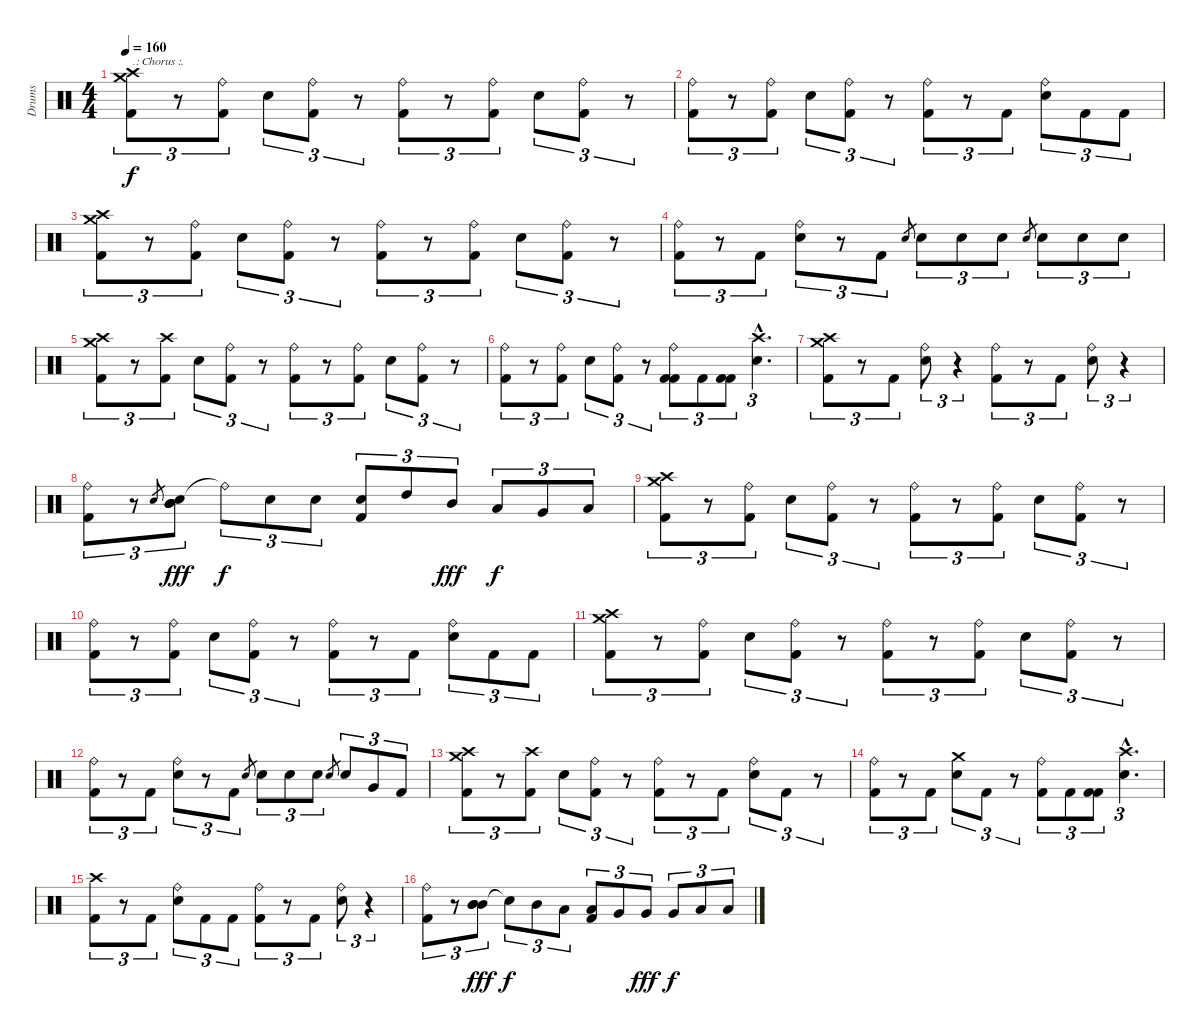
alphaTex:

\track ("Drums" "Drums") {instrument percussion}
\staff {score}
\articulation defaults
\ts (4 4)
\tempo 160
\clef neutral
\ks c
("Crash medium (hit)" "Crash high (hit)" "Kick (hit) 2").8{tu (3 2) txt ".: Chorus :." dy f} r.8{tu (3 2)} ("Kick (hit) 2" "Ride (bell)").8{tu (3 2)} "Electric Snare (hit)".8{tu (3 2)} ("Ride (bell)" "Kick (hit) 2").8{tu (3 2)} r.8{tu (3 2)} ("Kick (hit) 2" "Ride (bell)").8{tu (3 2)} r.8{tu (3 2)} ("Ride (bell)" "Kick (hit) 2").8{tu (3 2)} "Electric Snare (hit)".8{tu (3 2)} ("Ride (bell)" "Kick (hit) 2").8{tu (3 2)} r.8{tu (3 2)} |
("Ride (bell)" "Kick (hit) 2").8{tu (3 2)} r.8{tu (3 2)} ("Kick (hit) 2" "Ride (bell)").8{tu (3 2)} "Electric Snare (hit)".8{tu (3 2)} ("Ride (bell)" "Kick (hit) 2").8{tu (3 2)} r.8{tu (3 2)} ("Kick (hit) 2" "Ride (bell)").8{tu (3 2)} r.8{tu (3 2)} "Kick (hit) 2".8{tu (3 2)} ("Ride (bell)" "Electric Snare (hit)").8{tu (3 2)} "Kick (hit) 2".8{tu (3 2)} "Kick (hit) 2".8{tu (3 2)} |
("Crash medium (hit)" "Crash high (hit)" "Kick (hit) 2").8{tu (3 2)} r.8{tu (3 2)} ("Kick (hit) 2" "Ride (bell)").8{tu (3 2)} "Electric Snare (hit)".8{tu (3 2)} ("Ride (bell)" "Kick (hit) 2").8{tu (3 2)} r.8{tu (3 2)} ("Kick (hit) 2" "Ride (bell)").8{tu (3 2)} r.8{tu (3 2)} ("Ride (bell)" "Kick (hit) 2").8{tu (3 2)} "Electric Snare (hit)".8{tu (3 2)} ("Ride (bell)" "Kick (hit) 2").8{tu (3 2)} r.8{tu (3 2)} |
("Ride (bell)" "Kick (hit) 2").8{tu (3 2)} r.8{tu (3 2)} "Kick (hit) 2".8{tu (3 2)} ("Ride (bell)" "Electric Snare (hit)").8{tu (3 2)} r.8{tu (3 2)} "Kick (hit) 2".8{tu (3 2)} "Electric Snare (hit)".8{gr} "Electric Snare (hit)".8{tu (3 2)} "Electric Snare (hit)".8{tu (3 2)} "Electric Snare (hit)".8{tu (3 2)} "Electric Snare (hit)".8{gr} "Electric Snare (hit)".8{tu (3 2)} "Electric Snare (hit)".8{tu (3 2)} "Electric Snare (hit)".8{tu (3 2)} |
("Crash medium (hit)" "Crash high (hit)" "Kick (hit) 2").8{tu (3 2)} r.8{tu (3 2)} ("Kick (hit) 2" "Crash high (hit)").8{tu (3 2)} "Electric Snare (hit)".8{tu (3 2)} ("Ride (bell)" "Kick (hit) 2").8{tu (3 2)} r.8{tu (3 2)} ("Kick (hit) 2" "Ride (bell)").8{tu (3 2)} r.8{tu (3 2)} ("Ride (bell)" "Kick (hit) 2").8{tu (3 2)} "Electric Snare (hit)".8{tu (3 2)} ("Ride (bell)" "Kick (hit) 2").8{tu (3 2)} r.8{tu (3 2)} |
("Ride (bell)" "Kick (hit) 2").8{tu (3 2)} r.8{tu (3 2)} ("Kick (hit) 2" "Ride (bell)").8{tu (3 2)} "Electric Snare (hit)".8{tu (3 2)} ("Ride (bell)" "Kick (hit) 2").8{tu (3 2)} r.8{tu (3 2)} ("Kick (hit) 2" "Ride (bell)" "Kick (hit) 2").8{tu (3 2)} "Kick (hit) 2".8{tu (3 2)} ("Kick (hit) 2" "Kick (hit) 2").8{tu (3 2)} ("Crash high (hit)"{hac} "Electric Snare (hit)"{hac}).4{d tu (3 2)} |
("Crash high (hit)" "Crash medium (hit)" "Kick (hit) 2").8{tu (3 2)} r.8{tu (3 2)} "Kick (hit) 2".8{tu (3 2)} ("Ride (bell)" "Electric Snare (hit)").8{tu (3 2)} r.4{tu (3 2)} ("Kick (hit) 2" "Ride (bell)").8{tu (3 2)} r.8{tu (3 2)} "Kick (hit) 2".8{tu (3 2)} ("Ride (bell)" "Electric Snare (hit)").8{tu (3 2)} r.4{tu (3 2)} |
("Ride (bell)" "Kick (hit) 2").8{tu (3 2)} r.8{tu (3 2)} "Electric Snare (hit)".8{gr} ("Electric Snare (hit)" "Mid Tom (hit)" "Mid Tom (hit)" "Mid Tom (hit)").8{tu (3 2) dy fff} "Ride (bell)"{t}.8{tu (3 2) dy f} "Electric Snare (hit)".8{tu (3 2)} "Electric Snare (hit)".8{tu (3 2)} ("Kick (hit) 2" "Electric Snare (hit)").8{tu (3 2)} "High Tom (hit)".8{tu (3 2)} "Mid Tom (hit)".8{tu (3 2) dy fff} "Low Tom (hit)".8{tu (3 2) dy f} "Very Low Tom (hit)".8{tu (3 2)} "Low Floor Tom (hit)".8{tu (3 2)} |
("Crash medium (hit)" "Crash high (hit)" "Kick (hit) 2").8{tu (3 2)} r.8{tu (3 2)} ("Kick (hit) 2" "Ride (bell)").8{tu (3 2)} "Electric Snare (hit)".8{tu (3 2)} ("Ride (bell)" "Kick (hit) 2").8{tu (3 2)} r.8{tu (3 2)} ("Kick (hit) 2" "Ride (bell)").8{tu (3 2)} r.8{tu (3 2)} ("Ride (bell)" "Kick (hit) 2").8{tu (3 2)} "Electric Snare (hit)".8{tu (3 2)} ("Ride (bell)" "Kick (hit) 2").8{tu (3 2)} r.8{tu (3 2)} |
("Ride (bell)" "Kick (hit) 2").8{tu (3 2)} r.8{tu (3 2)} ("Kick (hit) 2" "Ride (bell)").8{tu (3 2)} "Electric Snare (hit)".8{tu (3 2)} ("Ride (bell)" "Kick (hit) 2").8{tu (3 2)} r.8{tu (3 2)} ("Kick (hit) 2" "Ride (bell)").8{tu (3 2)} r.8{tu (3 2)} "Kick (hit) 2".8{tu (3 2)} ("Ride (bell)" "Electric Snare (hit)").8{tu (3 2)} "Kick (hit) 2".8{tu (3 2)} "Kick (hit) 2".8{tu (3 2)} |
("Crash medium (hit)" "Crash high (hit)" "Kick (hit) 2").8{tu (3 2)} r.8{tu (3 2)} ("Kick (hit) 2" "Ride (bell)").8{tu (3 2)} "Electric Snare (hit)".8{tu (3 2)} ("Ride (bell)" "Kick (hit) 2").8{tu (3 2)} r.8{tu (3 2)} ("Kick (hit) 2" "Ride (bell)").8{tu (3 2)} r.8{tu (3 2)} ("Ride (bell)" "Kick (hit) 2").8{tu (3 2)} "Electric Snare (hit)".8{tu (3 2)} ("Ride (bell)" "Kick (hit) 2").8{tu (3 2)} r.8{tu (3 2)} |
("Ride (bell)" "Kick (hit) 2").8{tu (3 2)} r.8{tu (3 2)} "Kick (hit) 2".8{tu (3 2)} ("Ride (bell)" "Electric Snare (hit)").8{tu (3 2)} r.8{tu (3 2)} "Kick (hit) 2".8{tu (3 2)} "Electric Snare (hit)".8{gr} "Electric Snare (hit)".8{tu (3 2)} "Electric Snare (hit)".8{tu (3 2)} "Electric Snare (hit)".8{tu (3 2)} "Electric Snare (hit)".8{gr} "Electric Snare (hit)".8{tu (3 2)} "Very Low Tom (hit)".8{tu (3 2)} "Kick (hit) 2".8{tu (3 2)} |
("Crash medium (hit)" "Crash high (hit)" "Kick (hit) 2").8{tu (3 2)} r.8{tu (3 2)} ("Kick (hit) 2" "Crash high (hit)").8{tu (3 2)} "Electric Snare (hit)".8{tu (3 2)} ("Ride (bell)" "Kick (hit) 2").8{tu (3 2)} r.8{tu (3 2)} ("Kick (hit) 2" "Ride (bell)").8{tu (3 2)} r.8{tu (3 2)} "Kick (hit) 2".8{tu (3 2)} ("Ride (bell)" "Electric Snare (hit)").8{tu (3 2)} "Kick (hit) 2".8{tu (3 2)} r.8{tu (3 2)} |
("Ride (bell)" "Kick (hit) 2").8{tu (3 2)} r.8{tu (3 2)} "Kick (hit) 2".8{tu (3 2)} ("Crash medium (hit)" "Electric Snare (hit)").8{tu (3 2)} "Kick (hit) 2".8{tu (3 2)} r.8{tu (3 2)} ("Ride (bell)" "Kick (hit) 2").8{tu (3 2)} "Kick (hit) 2".8{tu (3 2)} ("Kick (hit) 2" "Kick (hit) 2").8{tu (3 2)} ("Crash high (hit)"{hac} "Electric Snare (hit)"{hac}).4{d tu (3 2)} |
("Crash high (hit)" "Kick (hit) 2").8{tu (3 2)} r.8{tu (3 2)} "Kick (hit) 2".8{tu (3 2)} ("Ride (bell)" "Electric Snare (hit)").8{tu (3 2)} "Kick (hit) 2".8{tu (3 2)} "Kick (hit) 2".8{tu (3 2)} ("Kick (hit) 2" "Ride (bell)").8{tu (3 2)} r.8{tu (3 2)} "Kick (hit) 2".8{tu (3 2)} ("Ride (bell)" "Electric Snare (hit)").8{tu (3 2)} r.4{tu (3 2)} |
("Ride (bell)" "Kick (hit) 2").8{tu (3 2)} r.8{tu (3 2)} ("Mid Tom (hit)" "Mid Tom (hit)" "Mid Tom (hit)").8{tu (3 2) dy fff} "Snare (hit)"{t}.8{tu (3 2) dy f} "Mid Tom (hit)".8{tu (3 2)} "Low Tom (hit)".8{tu (3 2)} ("Kick (hit) 2" "Low Tom (hit)").8{tu (3 2)} "Very Low Tom (hit)".8{tu (3 2)} "Very Low Tom (hit)".8{tu (3 2) dy fff} "Very Low Tom (hit)".8{tu (3 2) dy f} "Low Floor Tom (hit)".8{tu (3 2)} "Low Floor Tom (hit)".8{tu (3 2)}
